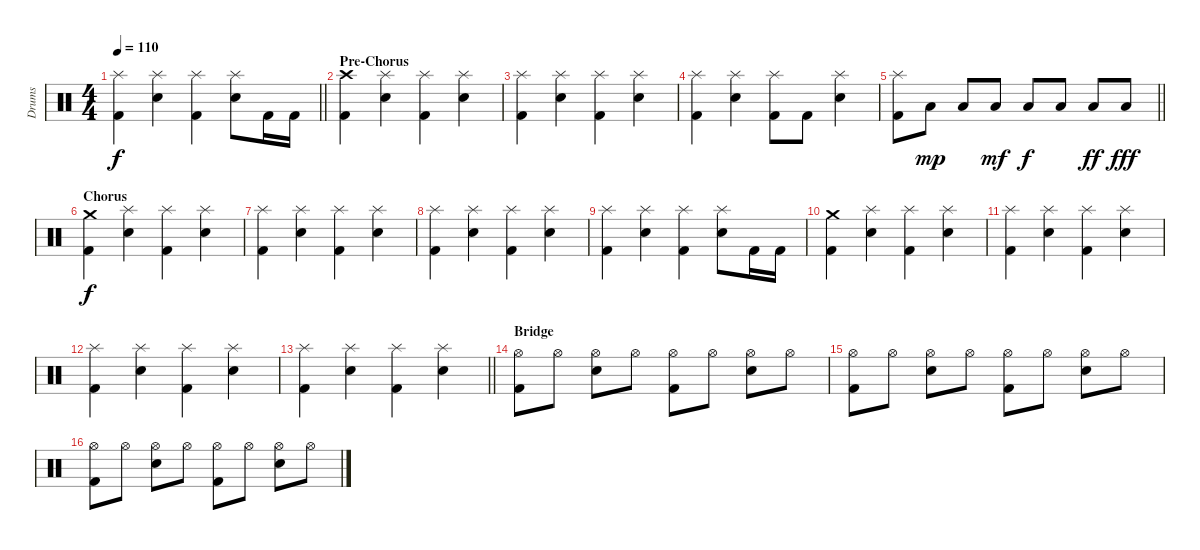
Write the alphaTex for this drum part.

\track ("Drums" "Drums") {instrument percussion}
\staff {score}
\articulation defaults
\ts (4 4)
\tempo 110
\clef neutral
\barLineRight lightlight
\ks c
("Splash (hit)" "Kick (hit) 2").4{dy f} ("Splash (hit)" "Snare (hit) 2").4 ("Splash (hit)" "Kick (hit) 2").4 ("Splash (hit)" "Snare (hit) 2").8 "Kick (hit) 2".16 "Kick (hit) 2".16 |
\section ("" "Pre-Chorus")
("Crash high (hit)" "Kick (hit) 2").4 ("Splash (hit)" "Snare (hit) 2").4 ("Splash (hit)" "Kick (hit) 2").4 ("Splash (hit)" "Snare (hit) 2").4 |
("Splash (hit)" "Kick (hit) 2").4 ("Splash (hit)" "Snare (hit) 2").4 ("Splash (hit)" "Kick (hit) 2").4 ("Splash (hit)" "Snare (hit) 2").4 |
("Splash (hit)" "Kick (hit) 2").4 ("Splash (hit)" "Snare (hit) 2").4 ("Splash (hit)" "Kick (hit) 2").8 "Kick (hit) 2".8 ("Splash (hit)" "Snare (hit) 2").4 |
\barLineRight lightlight
("Splash (hit)" "Kick (hit) 2").8 "Low Floor Tom (hit)".8{dy mp} "Low Floor Tom (hit)".8 "Low Floor Tom (hit)".8{dy mf} "Low Floor Tom (hit)".8{dy f} "Low Floor Tom (hit)".8 "Low Floor Tom (hit)".8{dy ff} "Low Floor Tom (hit)".8{dy fff} |
\section ("" "Chorus")
("Crash medium (hit)" "Kick (hit) 2").4{dy f} ("Splash (hit)" "Snare (hit) 2").4 ("Splash (hit)" "Kick (hit) 2").4 ("Splash (hit)" "Snare (hit) 2").4 |
("Splash (hit)" "Kick (hit) 2").4 ("Splash (hit)" "Snare (hit) 2").4 ("Splash (hit)" "Kick (hit) 2").4 ("Splash (hit)" "Snare (hit) 2").4 |
("Splash (hit)" "Kick (hit) 2").4 ("Splash (hit)" "Snare (hit) 2").4 ("Splash (hit)" "Kick (hit) 2").4 ("Splash (hit)" "Snare (hit) 2").4 |
("Splash (hit)" "Kick (hit) 2").4 ("Splash (hit)" "Snare (hit) 2").4 ("Splash (hit)" "Kick (hit) 2").4 ("Splash (hit)" "Snare (hit) 2").8 "Kick (hit) 2".16 "Kick (hit) 2".16 |
("Crash medium (hit)" "Kick (hit) 2").4 ("Splash (hit)" "Snare (hit) 2").4 ("Splash (hit)" "Kick (hit) 2").4 ("Splash (hit)" "Snare (hit) 2").4 |
("Splash (hit)" "Kick (hit) 2").4 ("Splash (hit)" "Snare (hit) 2").4 ("Splash (hit)" "Kick (hit) 2").4 ("Splash (hit)" "Snare (hit) 2").4 |
("Splash (hit)" "Kick (hit) 2").4 ("Splash (hit)" "Snare (hit) 2").4 ("Splash (hit)" "Kick (hit) 2").4 ("Splash (hit)" "Snare (hit) 2").4 |
\barLineRight lightlight
("Splash (hit)" "Kick (hit) 2").4 ("Splash (hit)" "Snare (hit) 2").4 ("Splash (hit)" "Kick (hit) 2").4 ("Splash (hit)" "Snare (hit) 2").4 |
\section ("" "Bridge")
("Hi-Hat (open)" "Kick (hit) 2").8 "Hi-Hat (open)".8 ("Hi-Hat (open)" "Snare (hit) 2").8 "Hi-Hat (open)".8 ("Hi-Hat (open)" "Kick (hit) 2").8 "Hi-Hat (open)".8 ("Hi-Hat (open)" "Snare (hit) 2").8 "Hi-Hat (open)".8 |
("Hi-Hat (open)" "Kick (hit) 2").8 "Hi-Hat (open)".8 ("Hi-Hat (open)" "Snare (hit) 2").8 "Hi-Hat (open)".8 ("Hi-Hat (open)" "Kick (hit) 2").8 "Hi-Hat (open)".8 ("Hi-Hat (open)" "Snare (hit) 2").8 "Hi-Hat (open)".8 |
("Hi-Hat (open)" "Kick (hit) 2").8 "Hi-Hat (open)".8 ("Hi-Hat (open)" "Snare (hit) 2").8 "Hi-Hat (open)".8 ("Hi-Hat (open)" "Kick (hit) 2").8 "Hi-Hat (open)".8 ("Hi-Hat (open)" "Snare (hit) 2").8 "Hi-Hat (open)".8
